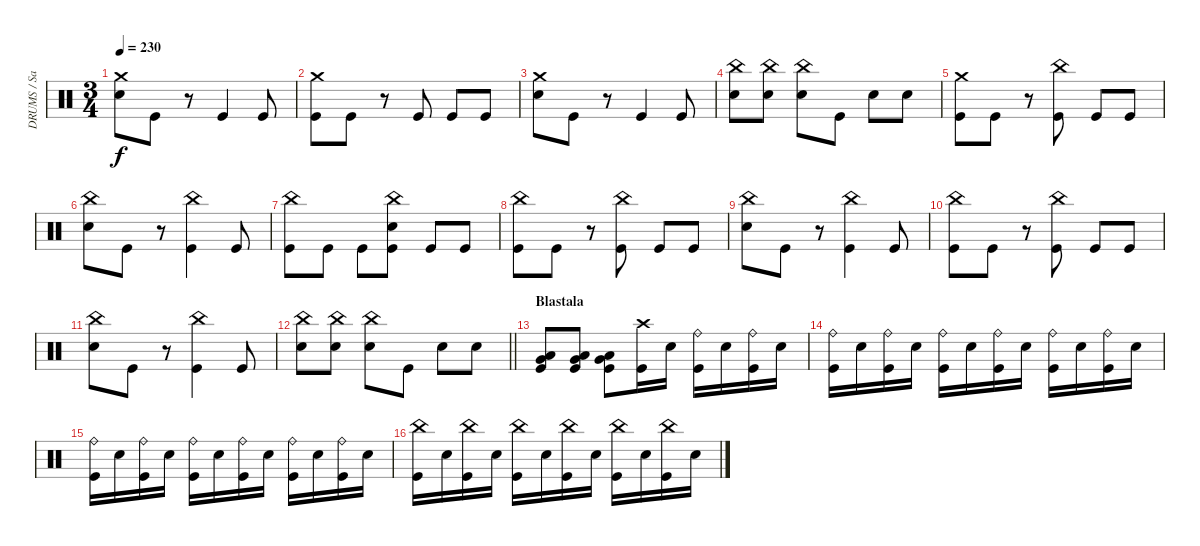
\track ("DRUMS / Sasha" "DRUMS / Sa") {instrument percussion}
\staff {score}
\articulation defaults
\ts (3 4)
\tempo 230
\clef neutral
\ks c
("Crash medium (hit)" "Snare (hit) 2").8{dy f} "Kick (hit)".8 r.8 "Kick (hit)".4 "Kick (hit)".8 |
("Crash medium (hit)" "Kick (hit)").8 "Kick (hit)".8 r.8 "Kick (hit)".8 "Kick (hit)".8 "Kick (hit)".8 |
("Crash medium (hit)" "Snare (hit) 2").8 "Kick (hit)".8 r.8 "Kick (hit)".4 "Kick (hit)".8 |
("China (hit)" "Snare (hit) 2").8 ("China (hit)" "Snare (hit) 2").8 ("China (hit)" "Snare (hit) 2").8 "Kick (hit)".8 "Snare (hit) 2".8 "Snare (hit) 2".8 |
("Crash medium (hit)" "Kick (hit)").8 "Kick (hit)".8 r.8 ("China (hit)" "Kick (hit)").8 "Kick (hit)".8 "Kick (hit)".8 |
("China (hit)" "Snare (hit) 2").8 "Kick (hit)".8 r.8 ("China (hit)" "Kick (hit)").4 "Kick (hit)".8 |
("China (hit)" "Kick (hit)").8 "Kick (hit)".8 "Kick (hit)".8 ("China (hit)" "Kick (hit)" "Snare (hit) 2").8 "Kick (hit)".8 "Kick (hit)".8 |
("China (hit)" "Kick (hit)").8 "Kick (hit)".8 r.8 ("China (hit)" "Kick (hit)").8 "Kick (hit)".8 "Kick (hit)".8 |
("China (hit)" "Snare (hit) 2").8 "Kick (hit)".8 r.8 ("China (hit)" "Kick (hit)").4 "Kick (hit)".8 |
("China (hit)" "Kick (hit)").8 "Kick (hit)".8 r.8 ("China (hit)" "Kick (hit)").8 "Kick (hit)".8 "Kick (hit)".8 |
("China (hit)" "Snare (hit) 2").8 "Kick (hit)".8 r.8 ("China (hit)" "Kick (hit)").4 "Kick (hit)".8 |
\barLineRight lightlight
("China (hit)" "Snare (hit) 2").8 ("China (hit)" "Snare (hit) 2").8 ("China (hit)" "Snare (hit) 2").8 "Kick (hit)".8 "Snare (hit) 2".8 "Snare (hit) 2".8 |
\section ("" "Blastala")
("Low Floor Tom (hit)" "Very Low Tom (hit)" "Kick (hit)").8 ("Low Floor Tom (hit)" "Very Low Tom (hit)" "Kick (hit)").8 ("Low Floor Tom (hit)" "Very Low Tom (hit)" "Kick (hit)").8 ("Kick (hit)" "Crash high (hit)").16 "Snare (hit) 2".16 ("Kick (hit)" "Ride (bell)").16 "Snare (hit) 2".16 ("Kick (hit)" "Ride (bell)").16 "Snare (hit) 2".16 |
("Kick (hit)" "Ride (bell)").16 "Snare (hit) 2".16 ("Kick (hit)" "Ride (bell)").16 "Snare (hit) 2".16 ("Kick (hit)" "Ride (bell)").16 "Snare (hit) 2".16 ("Kick (hit)" "Ride (bell)").16 "Snare (hit) 2".16 ("Kick (hit)" "Ride (bell)").16 "Snare (hit) 2".16 ("Kick (hit)" "Ride (bell)").16 "Snare (hit) 2".16 |
("Kick (hit)" "Ride (bell)").16 "Snare (hit) 2".16 ("Kick (hit)" "Ride (bell)").16 "Snare (hit) 2".16 ("Kick (hit)" "Ride (bell)").16 "Snare (hit) 2".16 ("Kick (hit)" "Ride (bell)").16 "Snare (hit) 2".16 ("Kick (hit)" "Ride (bell)").16 "Snare (hit) 2".16 ("Kick (hit)" "Ride (bell)").16 "Snare (hit) 2".16 |
("Kick (hit)" "China (hit)").16 "Snare (hit) 2".16 ("Kick (hit)" "China (hit)").16 "Snare (hit) 2".16 ("Kick (hit)" "China (hit)").16 "Snare (hit) 2".16 ("Kick (hit)" "China (hit)").16 "Snare (hit) 2".16 ("Kick (hit)" "China (hit)").16 "Snare (hit) 2".16 ("Kick (hit)" "China (hit)").16 "Snare (hit) 2".16
